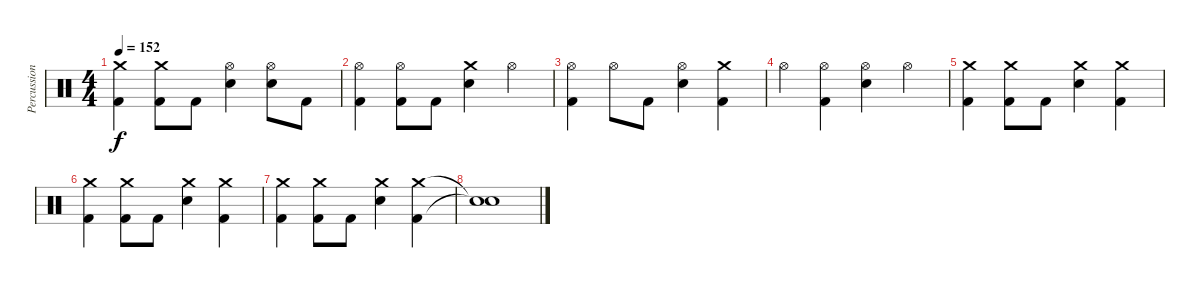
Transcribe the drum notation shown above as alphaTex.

\track ("Percussion" "Percussion") {instrument percussion}
\staff {score}
\articulation defaults
\ts (4 4)
\tempo 152
\clef neutral
\ks c
("Crash medium (hit)" "Kick (hit) 2").4{dy f} ("Crash medium (hit)" "Kick (hit) 2").8 "Kick (hit) 2".8 ("Hi-Hat (open)" "Electric Snare (hit)").4 ("Hi-Hat (open)" "Electric Snare (hit)").8 "Kick (hit) 2".8 |
("Hi-Hat (open)" "Kick (hit) 2").4 ("Hi-Hat (open)" "Kick (hit) 2").8 "Kick (hit) 2".8 ("Crash medium (hit)" "Electric Snare (hit)").4 "Hi-Hat (open)".4 |
("Hi-Hat (open)" "Kick (hit) 2").4 "Hi-Hat (open)".8 "Kick (hit) 2".8 ("Hi-Hat (open)" "Electric Snare (hit)").4 ("Crash medium (hit)" "Kick (hit) 2").4 |
"Hi-Hat (open)".4 ("Hi-Hat (open)" "Kick (hit) 2").4 ("Hi-Hat (open)" "Electric Snare (hit)").4 "Hi-Hat (open)".4 |
("Crash medium (hit)" "Kick (hit) 2").4 ("Crash medium (hit)" "Kick (hit) 2").8 "Kick (hit) 2".8 ("Crash medium (hit)" "Electric Snare (hit)").4 ("Crash medium (hit)" "Kick (hit) 2").4 |
("Crash medium (hit)" "Kick (hit) 2").4 ("Crash medium (hit)" "Kick (hit) 2").8 "Kick (hit) 2".8 ("Crash medium (hit)" "Electric Snare (hit)").4 ("Crash medium (hit)" "Kick (hit) 2").4 |
("Crash medium (hit)" "Kick (hit) 2").4 ("Crash medium (hit)" "Kick (hit) 2").8 "Kick (hit) 2".8 ("Crash medium (hit)" "Electric Snare (hit)").4 ("Crash medium (hit)" "Kick (hit) 2").4 |
("Snare (hit)"{t} "Snare (hit)"{t}).1
